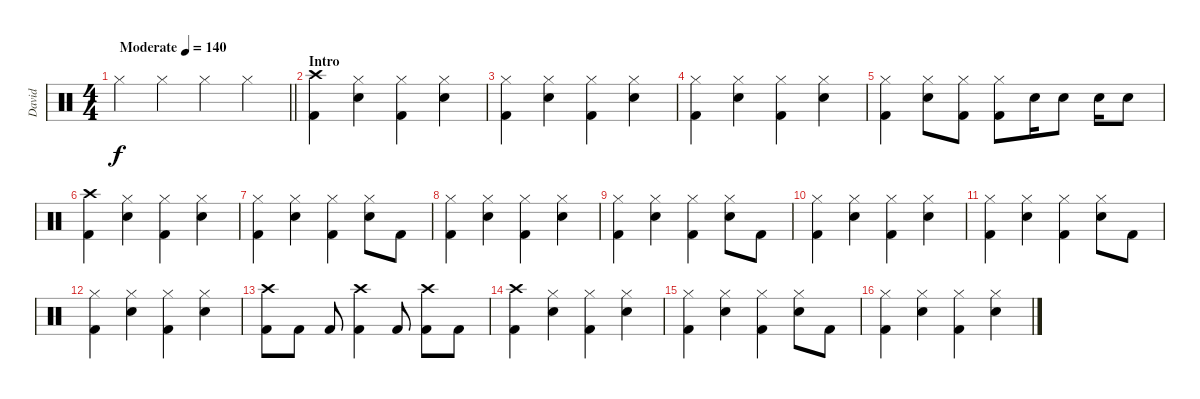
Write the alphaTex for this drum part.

\track ("David" "David") {instrument percussion}
\staff {score}
\articulation defaults
\ts (4 4)
\tempo (140 "Moderate")
\clef neutral
\barLineRight lightlight
\ks c "Hi-Hat (closed)".4{dy f} "Hi-Hat (closed)".4 "Hi-Hat (closed)".4 "Hi-Hat (closed)".4
|
\section ("" "Intro")
("Crash high (hit)" "Kick (hit) 2").4 ("Hi-Hat (closed)" "Snare (hit) 2").4 ("Hi-Hat (closed)" "Kick (hit) 2").4 ("Hi-Hat (closed)" "Snare (hit) 2").4 |
("Hi-Hat (closed)" "Kick (hit) 2").4 ("Hi-Hat (closed)" "Snare (hit) 2").4 ("Hi-Hat (closed)" "Kick (hit) 2").4 ("Hi-Hat (closed)" "Snare (hit) 2").4 |
("Hi-Hat (closed)" "Kick (hit) 2").4 ("Hi-Hat (closed)" "Snare (hit) 2").4 ("Hi-Hat (closed)" "Kick (hit) 2").4 ("Hi-Hat (closed)" "Snare (hit) 2").4 |
("Hi-Hat (closed)" "Kick (hit) 2").4 ("Hi-Hat (closed)" "Snare (hit) 2").8 ("Hi-Hat (closed)" "Kick (hit) 2").8 ("Hi-Hat (closed)" "Kick (hit) 2").8 "Snare (hit) 2".16 "Snare (hit) 2".8 "Snare (hit) 2".16 "Snare (hit) 2".8 |
("Crash high (hit)" "Kick (hit) 2").4 ("Hi-Hat (closed)" "Snare (hit) 2").4 ("Hi-Hat (closed)" "Kick (hit) 2").4 ("Hi-Hat (closed)" "Snare (hit) 2").4 |
("Hi-Hat (closed)" "Kick (hit) 2").4 ("Hi-Hat (closed)" "Snare (hit) 2").4 ("Hi-Hat (closed)" "Kick (hit) 2").4 ("Hi-Hat (closed)" "Snare (hit) 2").8 "Kick (hit) 2".8 |
("Hi-Hat (closed)" "Kick (hit) 2").4 ("Hi-Hat (closed)" "Snare (hit) 2").4 ("Hi-Hat (closed)" "Kick (hit) 2").4 ("Hi-Hat (closed)" "Snare (hit) 2").4 |
("Hi-Hat (closed)" "Kick (hit) 2").4 ("Hi-Hat (closed)" "Snare (hit) 2").4 ("Hi-Hat (closed)" "Kick (hit) 2").4 ("Hi-Hat (closed)" "Snare (hit) 2").8 "Kick (hit) 2".8 |
("Hi-Hat (closed)" "Kick (hit) 2").4 ("Hi-Hat (closed)" "Snare (hit) 2").4 ("Hi-Hat (closed)" "Kick (hit) 2").4 ("Hi-Hat (closed)" "Snare (hit) 2").4 |
("Hi-Hat (closed)" "Kick (hit) 2").4 ("Hi-Hat (closed)" "Snare (hit) 2").4 ("Hi-Hat (closed)" "Kick (hit) 2").4 ("Hi-Hat (closed)" "Snare (hit) 2").8 "Kick (hit) 2".8 |
("Hi-Hat (closed)" "Kick (hit) 2").4 ("Hi-Hat (closed)" "Snare (hit) 2").4 ("Hi-Hat (closed)" "Kick (hit) 2").4 ("Hi-Hat (closed)" "Snare (hit) 2").4 |
("Crash high (hit)" "Kick (hit) 2").8 "Kick (hit) 2".8 "Kick (hit) 2".8 ("Crash high (hit)" "Kick (hit) 2").4 "Kick (hit) 2".8 ("Crash high (hit)" "Kick (hit) 2").8 "Kick (hit) 2".8 |
("Crash high (hit)" "Kick (hit) 2").4 ("Hi-Hat (closed)" "Snare (hit) 2").4 ("Hi-Hat (closed)" "Kick (hit) 2").4 ("Hi-Hat (closed)" "Snare (hit) 2").4 |
("Hi-Hat (closed)" "Kick (hit) 2").4 ("Hi-Hat (closed)" "Snare (hit) 2").4 ("Hi-Hat (closed)" "Kick (hit) 2").4 ("Hi-Hat (closed)" "Snare (hit) 2").8 "Kick (hit) 2".8 |
("Hi-Hat (closed)" "Kick (hit) 2").4 ("Hi-Hat (closed)" "Snare (hit) 2").4 ("Hi-Hat (closed)" "Kick (hit) 2").4 ("Hi-Hat (closed)" "Snare (hit) 2").4
